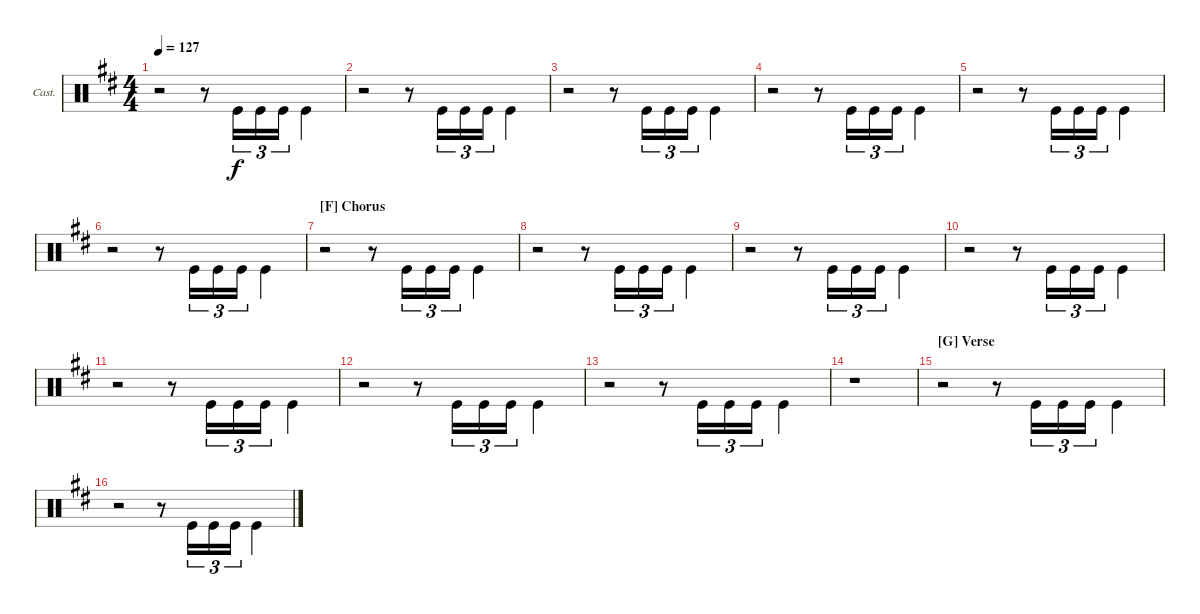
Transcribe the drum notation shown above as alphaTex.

\bracketExtendMode groupsimilarinstruments
\firstSystemTrackNameOrientation horizontal
\otherSystemsTrackNameOrientation horizontal
\track ("Castanets" "Cast.") {instrument percussion}
\staff {score}
\articulation defaults
\ts (4 4)
\tempo 127
\clef neutral
\scale
0.5
\ks d
r.2{dy f beam invert} r.8{beam invert} "Kick (hit)".16{tu (3 2) beam invert} "Kick (hit)".16{tu (3 2)} "Kick (hit)".16{tu (3 2)} "Kick (hit)".4{beam invert} |
\scale
0.5 r.2{beam invert} r.8{beam invert} "Kick (hit)".16{tu (3 2) beam invert} "Kick (hit)".16{tu (3 2)} "Kick (hit)".16{tu (3 2)} "Kick (hit)".4{beam invert} |
\scale
0.5 r.2{beam invert} r.8{beam invert} "Kick (hit)".16{tu (3 2) beam invert} "Kick (hit)".16{tu (3 2)} "Kick (hit)".16{tu (3 2)} "Kick (hit)".4{beam invert} |
\scale
0.5 r.2{beam invert} r.8{beam invert} "Kick (hit)".16{tu (3 2) beam invert} "Kick (hit)".16{tu (3 2)} "Kick (hit)".16{tu (3 2)} "Kick (hit)".4{beam invert} |
\scale
0.5 r.2{beam invert} r.8{beam invert} "Kick (hit)".16{tu (3 2) beam invert} "Kick (hit)".16{tu (3 2)} "Kick (hit)".16{tu (3 2)} "Kick (hit)".4{beam invert} |
\scale
0.5 r.2{beam invert} r.8{beam invert} "Kick (hit)".16{tu (3 2) beam invert} "Kick (hit)".16{tu (3 2)} "Kick (hit)".16{tu (3 2)} "Kick (hit)".4{beam invert} |
\section ("F" "Chorus")
\scale
0.5 r.2{beam invert} r.8{beam invert} "Kick (hit)".16{tu (3 2) beam invert} "Kick (hit)".16{tu (3 2)} "Kick (hit)".16{tu (3 2)} "Kick (hit)".4{beam invert} |
\scale
0.5 r.2{beam invert} r.8{beam invert} "Kick (hit)".16{tu (3 2) beam invert} "Kick (hit)".16{tu (3 2)} "Kick (hit)".16{tu (3 2)} "Kick (hit)".4{beam invert} |
\scale
0.5 r.2{beam invert} r.8{beam invert} "Kick (hit)".16{tu (3 2) beam invert} "Kick (hit)".16{tu (3 2)} "Kick (hit)".16{tu (3 2)} "Kick (hit)".4{beam invert} |
\scale
0.5 r.2{beam invert} r.8{beam invert} "Kick (hit)".16{tu (3 2) beam invert} "Kick (hit)".16{tu (3 2)} "Kick (hit)".16{tu (3 2)} "Kick (hit)".4{beam invert} |
\scale
0.5 r.2{beam invert} r.8{beam invert} "Kick (hit)".16{tu (3 2) beam invert} "Kick (hit)".16{tu (3 2)} "Kick (hit)".16{tu (3 2)} "Kick (hit)".4{beam invert} |
\scale
0.5 r.2{beam invert} r.8{beam invert} "Kick (hit)".16{tu (3 2) beam invert} "Kick (hit)".16{tu (3 2)} "Kick (hit)".16{tu (3 2)} "Kick (hit)".4{beam invert} |
\scale
0.5 r.2{beam invert} r.8{beam invert} "Kick (hit)".16{tu (3 2) beam invert} "Kick (hit)".16{tu (3 2)} "Kick (hit)".16{tu (3 2)} "Kick (hit)".4{beam invert} |
\scale
0.5 r.1 |
\section ("G" "Verse")
\scale
0.5 r.2{beam invert} r.8{beam invert} "Kick (hit)".16{tu (3 2) beam invert} "Kick (hit)".16{tu (3 2)} "Kick (hit)".16{tu (3 2)} "Kick (hit)".4{beam invert} |
\scale
0.5 r.2{beam invert} r.8{beam invert} "Kick (hit)".16{tu (3 2) beam invert} "Kick (hit)".16{tu (3 2)} "Kick (hit)".16{tu (3 2)} "Kick (hit)".4{beam invert}
